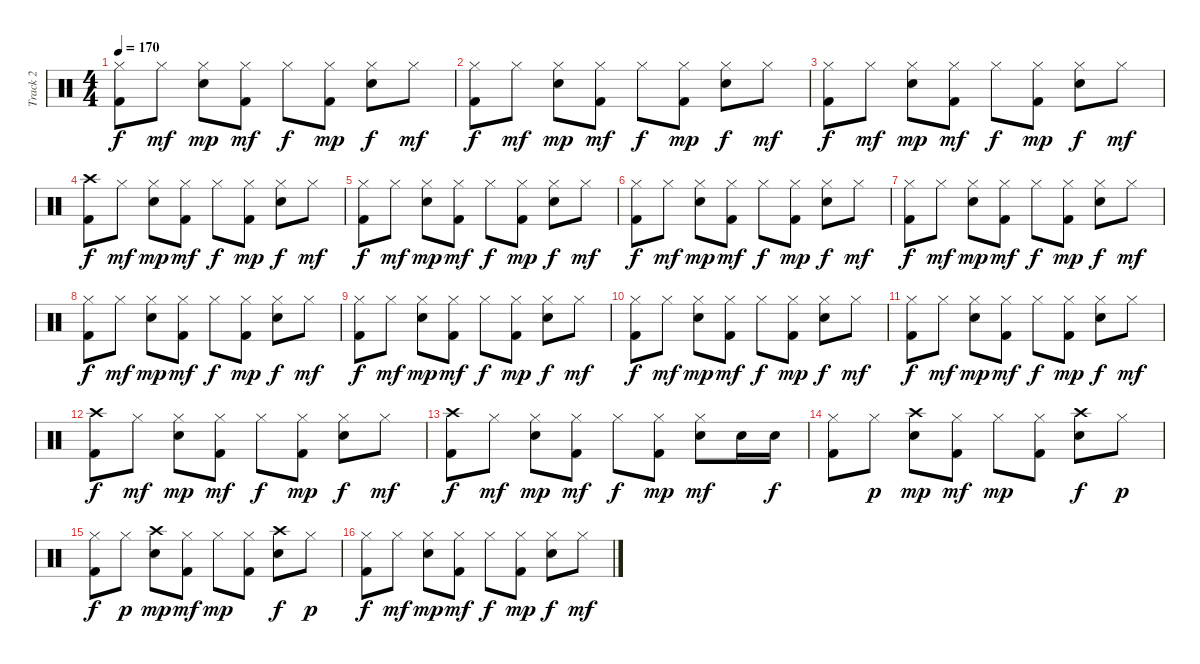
\track ("Track 2" "Track 2") {instrument percussion}
\staff {score}
\articulation defaults
\ts (4 4)
\tempo 170
\clef neutral
\ks c
("Hi-Hat (closed)" "Kick (hit) 2").8{dy f} "Hi-Hat (closed)".8{dy mf} ("Hi-Hat (closed)" "Electric Snare (hit)").8{dy mp} ("Hi-Hat (closed)" "Kick (hit) 2").8{dy mf} "Hi-Hat (closed)".8{dy f} ("Hi-Hat (closed)" "Kick (hit) 2").8{dy mp} ("Hi-Hat (closed)" "Electric Snare (hit)").8{dy f} "Hi-Hat (closed)".8{dy mf} |
("Hi-Hat (closed)" "Kick (hit) 2").8{dy f} "Hi-Hat (closed)".8{dy mf} ("Hi-Hat (closed)" "Electric Snare (hit)").8{dy mp} ("Hi-Hat (closed)" "Kick (hit) 2").8{dy mf} "Hi-Hat (closed)".8{dy f} ("Hi-Hat (closed)" "Kick (hit) 2").8{dy mp} ("Hi-Hat (closed)" "Electric Snare (hit)").8{dy f} "Hi-Hat (closed)".8{dy mf} |
("Hi-Hat (closed)" "Kick (hit) 2").8{dy f} "Hi-Hat (closed)".8{dy mf} ("Hi-Hat (closed)" "Electric Snare (hit)").8{dy mp} ("Hi-Hat (closed)" "Kick (hit) 2").8{dy mf} "Hi-Hat (closed)".8{dy f} ("Hi-Hat (closed)" "Kick (hit) 2").8{dy mp} ("Hi-Hat (closed)" "Electric Snare (hit)").8{dy f} "Hi-Hat (closed)".8{dy mf} |
("Crash high (hit)" "Kick (hit) 2").8{dy f} "Hi-Hat (closed)".8{dy mf} ("Hi-Hat (closed)" "Electric Snare (hit)").8{dy mp} ("Hi-Hat (closed)" "Kick (hit) 2").8{dy mf} "Hi-Hat (closed)".8{dy f} ("Hi-Hat (closed)" "Kick (hit) 2").8{dy mp} ("Hi-Hat (closed)" "Electric Snare (hit)").8{dy f} "Hi-Hat (closed)".8{dy mf} |
("Hi-Hat (closed)" "Kick (hit) 2").8{dy f} "Hi-Hat (closed)".8{dy mf} ("Hi-Hat (closed)" "Electric Snare (hit)").8{dy mp} ("Hi-Hat (closed)" "Kick (hit) 2").8{dy mf} "Hi-Hat (closed)".8{dy f} ("Hi-Hat (closed)" "Kick (hit) 2").8{dy mp} ("Hi-Hat (closed)" "Electric Snare (hit)").8{dy f} "Hi-Hat (closed)".8{dy mf} |
("Hi-Hat (closed)" "Kick (hit) 2").8{dy f} "Hi-Hat (closed)".8{dy mf} ("Hi-Hat (closed)" "Electric Snare (hit)").8{dy mp} ("Hi-Hat (closed)" "Kick (hit) 2").8{dy mf} "Hi-Hat (closed)".8{dy f} ("Hi-Hat (closed)" "Kick (hit) 2").8{dy mp} ("Hi-Hat (closed)" "Electric Snare (hit)").8{dy f} "Hi-Hat (closed)".8{dy mf} |
("Hi-Hat (closed)" "Kick (hit) 2").8{dy f} "Hi-Hat (closed)".8{dy mf} ("Hi-Hat (closed)" "Electric Snare (hit)").8{dy mp} ("Hi-Hat (closed)" "Kick (hit) 2").8{dy mf} "Hi-Hat (closed)".8{dy f} ("Hi-Hat (closed)" "Kick (hit) 2").8{dy mp} ("Hi-Hat (closed)" "Electric Snare (hit)").8{dy f} "Hi-Hat (closed)".8{dy mf} |
("Hi-Hat (closed)" "Kick (hit) 2").8{dy f} "Hi-Hat (closed)".8{dy mf} ("Hi-Hat (closed)" "Electric Snare (hit)").8{dy mp} ("Hi-Hat (closed)" "Kick (hit) 2").8{dy mf} "Hi-Hat (closed)".8{dy f} ("Hi-Hat (closed)" "Kick (hit) 2").8{dy mp} ("Hi-Hat (closed)" "Electric Snare (hit)").8{dy f} "Hi-Hat (closed)".8{dy mf} |
("Hi-Hat (closed)" "Kick (hit) 2").8{dy f} "Hi-Hat (closed)".8{dy mf} ("Hi-Hat (closed)" "Electric Snare (hit)").8{dy mp} ("Hi-Hat (closed)" "Kick (hit) 2").8{dy mf} "Hi-Hat (closed)".8{dy f} ("Hi-Hat (closed)" "Kick (hit) 2").8{dy mp} ("Hi-Hat (closed)" "Electric Snare (hit)").8{dy f} "Hi-Hat (closed)".8{dy mf} |
("Hi-Hat (closed)" "Kick (hit) 2").8{dy f} "Hi-Hat (closed)".8{dy mf} ("Hi-Hat (closed)" "Electric Snare (hit)").8{dy mp} ("Hi-Hat (closed)" "Kick (hit) 2").8{dy mf} "Hi-Hat (closed)".8{dy f} ("Hi-Hat (closed)" "Kick (hit) 2").8{dy mp} ("Hi-Hat (closed)" "Electric Snare (hit)").8{dy f} "Hi-Hat (closed)".8{dy mf} |
("Hi-Hat (closed)" "Kick (hit) 2").8{dy f} "Hi-Hat (closed)".8{dy mf} ("Hi-Hat (closed)" "Electric Snare (hit)").8{dy mp} ("Hi-Hat (closed)" "Kick (hit) 2").8{dy mf} "Hi-Hat (closed)".8{dy f} ("Hi-Hat (closed)" "Kick (hit) 2").8{dy mp} ("Hi-Hat (closed)" "Electric Snare (hit)").8{dy f} "Hi-Hat (closed)".8{dy mf} |
("Crash high (hit)" "Kick (hit) 2").8{dy f} "Hi-Hat (closed)".8{dy mf} ("Hi-Hat (closed)" "Electric Snare (hit)").8{dy mp} ("Hi-Hat (closed)" "Kick (hit) 2").8{dy mf} "Hi-Hat (closed)".8{dy f} ("Hi-Hat (closed)" "Kick (hit) 2").8{dy mp} ("Hi-Hat (closed)" "Electric Snare (hit)").8{dy f} "Hi-Hat (closed)".8{dy mf} |
("Crash high (hit)" "Kick (hit) 2").8{dy f} "Hi-Hat (closed)".8{dy mf} ("Hi-Hat (closed)" "Electric Snare (hit)").8{dy mp} ("Hi-Hat (closed)" "Kick (hit) 2").8{dy mf} "Hi-Hat (closed)".8{dy f} ("Hi-Hat (closed)" "Kick (hit) 2").8{dy mp} ("Hi-Hat (closed)" "Electric Snare (hit)").8{dy mf} "Electric Snare (hit)".16 "Electric Snare (hit)".16{dy f} |
("Hi-Hat (closed)" "Kick (hit) 2").8 "Hi-Hat (closed)".8{dy p} ("Crash high (hit)" "Electric Snare (hit)").8{dy mp} ("Hi-Hat (closed)" "Kick (hit) 2").8{dy mf} "Hi-Hat (closed)".8{dy mp} ("Hi-Hat (closed)" "Kick (hit) 2").8 ("Crash high (hit)" "Electric Snare (hit)").8{dy f} "Hi-Hat (closed)".8{dy p} |
("Hi-Hat (closed)" "Kick (hit) 2").8{dy f} "Hi-Hat (closed)".8{dy p} ("Crash high (hit)" "Electric Snare (hit)").8{dy mp} ("Hi-Hat (closed)" "Kick (hit) 2").8{dy mf} "Hi-Hat (closed)".8{dy mp} ("Hi-Hat (closed)" "Kick (hit) 2").8 ("Crash high (hit)" "Electric Snare (hit)").8{dy f} "Hi-Hat (closed)".8{dy p} |
("Hi-Hat (closed)" "Kick (hit) 2").8{dy f} "Hi-Hat (closed)".8{dy mf} ("Hi-Hat (closed)" "Electric Snare (hit)").8{dy mp} ("Hi-Hat (closed)" "Kick (hit) 2").8{dy mf} "Hi-Hat (closed)".8{dy f} ("Hi-Hat (closed)" "Kick (hit) 2").8{dy mp} ("Hi-Hat (closed)" "Electric Snare (hit)").8{dy f} "Hi-Hat (closed)".8{dy mf}
